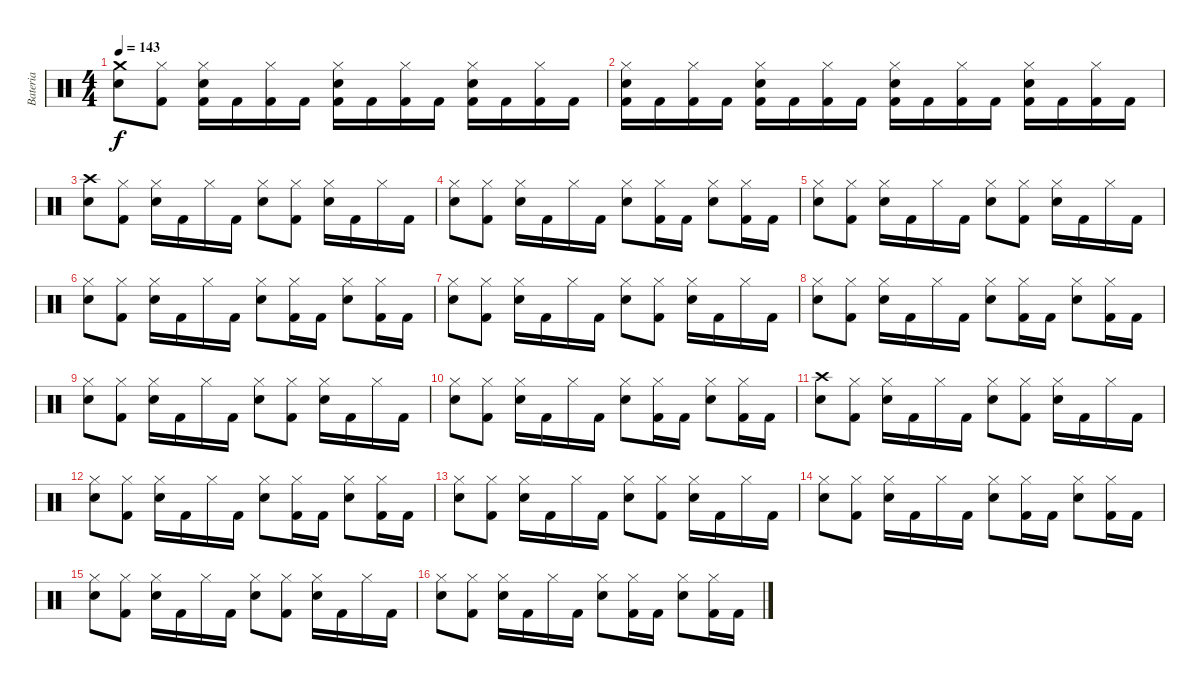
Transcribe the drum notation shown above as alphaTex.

\track ("Bateria" "Bateria") {instrument percussion}
\staff {score}
\articulation defaults
\ts (4 4)
\tempo 143
\clef neutral
\ks c
("Crash medium (hit)" "Snare (hit) 2").8{dy f} ("Hi-Hat (closed)" "Kick (hit) 2").8 ("Hi-Hat (closed)" "Snare (hit) 2" "Kick (hit) 2").16 "Kick (hit) 2".16 ("Hi-Hat (closed)" "Kick (hit) 2").16 "Kick (hit) 2".16 ("Hi-Hat (closed)" "Snare (hit) 2" "Kick (hit) 2").16 "Kick (hit) 2".16 ("Hi-Hat (closed)" "Kick (hit) 2").16 "Kick (hit) 2".16 ("Hi-Hat (closed)" "Snare (hit) 2" "Kick (hit) 2").16 "Kick (hit) 2".16 ("Hi-Hat (closed)" "Kick (hit) 2").16 "Kick (hit) 2".16 |
("Hi-Hat (closed)" "Snare (hit) 2" "Kick (hit) 2").16 "Kick (hit) 2".16 ("Hi-Hat (closed)" "Kick (hit) 2").16 "Kick (hit) 2".16 ("Hi-Hat (closed)" "Snare (hit) 2" "Kick (hit) 2").16 "Kick (hit) 2".16 ("Hi-Hat (closed)" "Kick (hit) 2").16 "Kick (hit) 2".16 ("Hi-Hat (closed)" "Snare (hit) 2" "Kick (hit) 2").16 "Kick (hit) 2".16 ("Hi-Hat (closed)" "Kick (hit) 2").16 "Kick (hit) 2".16 ("Hi-Hat (closed)" "Snare (hit) 2" "Kick (hit) 2").16 "Kick (hit) 2".16 ("Hi-Hat (closed)" "Kick (hit) 2").16 "Kick (hit) 2".16 |
("Crash high (hit)" "Snare (hit) 2").8 ("Hi-Hat (closed)" "Kick (hit) 2").8 ("Hi-Hat (closed)" "Snare (hit) 2").16 "Kick (hit) 2".16 "Hi-Hat (closed)".16 "Kick (hit) 2".16 ("Hi-Hat (closed)" "Snare (hit) 2").8 ("Hi-Hat (closed)" "Kick (hit) 2").8 ("Hi-Hat (closed)" "Snare (hit) 2").16 "Kick (hit) 2".16 "Hi-Hat (closed)".16 "Kick (hit) 2".16 |
("Hi-Hat (closed)" "Snare (hit) 2").8 ("Hi-Hat (closed)" "Kick (hit) 2").8 ("Hi-Hat (closed)" "Snare (hit) 2").16 "Kick (hit) 2".16 "Hi-Hat (closed)".16 "Kick (hit) 2".16 ("Hi-Hat (closed)" "Snare (hit) 2").8 ("Hi-Hat (closed)" "Kick (hit) 2").16 "Kick (hit) 2".16 ("Hi-Hat (closed)" "Snare (hit) 2").8 ("Hi-Hat (closed)" "Kick (hit) 2").16 "Kick (hit) 2".16 |
("Hi-Hat (closed)" "Snare (hit) 2").8 ("Hi-Hat (closed)" "Kick (hit) 2").8 ("Hi-Hat (closed)" "Snare (hit) 2").16 "Kick (hit) 2".16 "Hi-Hat (closed)".16 "Kick (hit) 2".16 ("Hi-Hat (closed)" "Snare (hit) 2").8 ("Hi-Hat (closed)" "Kick (hit) 2").8 ("Hi-Hat (closed)" "Snare (hit) 2").16 "Kick (hit) 2".16 "Hi-Hat (closed)".16 "Kick (hit) 2".16 |
("Hi-Hat (closed)" "Snare (hit) 2").8 ("Hi-Hat (closed)" "Kick (hit) 2").8 ("Hi-Hat (closed)" "Snare (hit) 2").16 "Kick (hit) 2".16 "Hi-Hat (closed)".16 "Kick (hit) 2".16 ("Hi-Hat (closed)" "Snare (hit) 2").8 ("Hi-Hat (closed)" "Kick (hit) 2").16 "Kick (hit) 2".16 ("Hi-Hat (closed)" "Snare (hit) 2").8 ("Hi-Hat (closed)" "Kick (hit) 2").16 "Kick (hit) 2".16 |
("Hi-Hat (closed)" "Snare (hit) 2").8 ("Hi-Hat (closed)" "Kick (hit) 2").8 ("Hi-Hat (closed)" "Snare (hit) 2").16 "Kick (hit) 2".16 "Hi-Hat (closed)".16 "Kick (hit) 2".16 ("Hi-Hat (closed)" "Snare (hit) 2").8 ("Hi-Hat (closed)" "Kick (hit) 2").8 ("Hi-Hat (closed)" "Snare (hit) 2").16 "Kick (hit) 2".16 "Hi-Hat (closed)".16 "Kick (hit) 2".16 |
("Hi-Hat (closed)" "Snare (hit) 2").8 ("Hi-Hat (closed)" "Kick (hit) 2").8 ("Hi-Hat (closed)" "Snare (hit) 2").16 "Kick (hit) 2".16 "Hi-Hat (closed)".16 "Kick (hit) 2".16 ("Hi-Hat (closed)" "Snare (hit) 2").8 ("Hi-Hat (closed)" "Kick (hit) 2").16 "Kick (hit) 2".16 ("Hi-Hat (closed)" "Snare (hit) 2").8 ("Hi-Hat (closed)" "Kick (hit) 2").16 "Kick (hit) 2".16 |
("Hi-Hat (closed)" "Snare (hit) 2").8 ("Hi-Hat (closed)" "Kick (hit) 2").8 ("Hi-Hat (closed)" "Snare (hit) 2").16 "Kick (hit) 2".16 "Hi-Hat (closed)".16 "Kick (hit) 2".16 ("Hi-Hat (closed)" "Snare (hit) 2").8 ("Hi-Hat (closed)" "Kick (hit) 2").8 ("Hi-Hat (closed)" "Snare (hit) 2").16 "Kick (hit) 2".16 "Hi-Hat (closed)".16 "Kick (hit) 2".16 |
("Hi-Hat (closed)" "Snare (hit) 2").8 ("Hi-Hat (closed)" "Kick (hit) 2").8 ("Hi-Hat (closed)" "Snare (hit) 2").16 "Kick (hit) 2".16 "Hi-Hat (closed)".16 "Kick (hit) 2".16 ("Hi-Hat (closed)" "Snare (hit) 2").8 ("Hi-Hat (closed)" "Kick (hit) 2").16 "Kick (hit) 2".16 ("Hi-Hat (closed)" "Snare (hit) 2").8 ("Hi-Hat (closed)" "Kick (hit) 2").16 "Kick (hit) 2".16 |
("Crash high (hit)" "Snare (hit) 2").8 ("Hi-Hat (closed)" "Kick (hit) 2").8 ("Hi-Hat (closed)" "Snare (hit) 2").16 "Kick (hit) 2".16 "Hi-Hat (closed)".16 "Kick (hit) 2".16 ("Hi-Hat (closed)" "Snare (hit) 2").8 ("Hi-Hat (closed)" "Kick (hit) 2").8 ("Hi-Hat (closed)" "Snare (hit) 2").16 "Kick (hit) 2".16 "Hi-Hat (closed)".16 "Kick (hit) 2".16 |
("Hi-Hat (closed)" "Snare (hit) 2").8 ("Hi-Hat (closed)" "Kick (hit) 2").8 ("Hi-Hat (closed)" "Snare (hit) 2").16 "Kick (hit) 2".16 "Hi-Hat (closed)".16 "Kick (hit) 2".16 ("Hi-Hat (closed)" "Snare (hit) 2").8 ("Hi-Hat (closed)" "Kick (hit) 2").16 "Kick (hit) 2".16 ("Hi-Hat (closed)" "Snare (hit) 2").8 ("Hi-Hat (closed)" "Kick (hit) 2").16 "Kick (hit) 2".16 |
("Hi-Hat (closed)" "Snare (hit) 2").8 ("Hi-Hat (closed)" "Kick (hit) 2").8 ("Hi-Hat (closed)" "Snare (hit) 2").16 "Kick (hit) 2".16 "Hi-Hat (closed)".16 "Kick (hit) 2".16 ("Hi-Hat (closed)" "Snare (hit) 2").8 ("Hi-Hat (closed)" "Kick (hit) 2").8 ("Hi-Hat (closed)" "Snare (hit) 2").16 "Kick (hit) 2".16 "Hi-Hat (closed)".16 "Kick (hit) 2".16 |
("Hi-Hat (closed)" "Snare (hit) 2").8 ("Hi-Hat (closed)" "Kick (hit) 2").8 ("Hi-Hat (closed)" "Snare (hit) 2").16 "Kick (hit) 2".16 "Hi-Hat (closed)".16 "Kick (hit) 2".16 ("Hi-Hat (closed)" "Snare (hit) 2").8 ("Hi-Hat (closed)" "Kick (hit) 2").16 "Kick (hit) 2".16 ("Hi-Hat (closed)" "Snare (hit) 2").8 ("Hi-Hat (closed)" "Kick (hit) 2").16 "Kick (hit) 2".16 |
("Hi-Hat (closed)" "Snare (hit) 2").8 ("Hi-Hat (closed)" "Kick (hit) 2").8 ("Hi-Hat (closed)" "Snare (hit) 2").16 "Kick (hit) 2".16 "Hi-Hat (closed)".16 "Kick (hit) 2".16 ("Hi-Hat (closed)" "Snare (hit) 2").8 ("Hi-Hat (closed)" "Kick (hit) 2").8 ("Hi-Hat (closed)" "Snare (hit) 2").16 "Kick (hit) 2".16 "Hi-Hat (closed)".16 "Kick (hit) 2".16 |
("Hi-Hat (closed)" "Snare (hit) 2").8 ("Hi-Hat (closed)" "Kick (hit) 2").8 ("Hi-Hat (closed)" "Snare (hit) 2").16 "Kick (hit) 2".16 "Hi-Hat (closed)".16 "Kick (hit) 2".16 ("Hi-Hat (closed)" "Snare (hit) 2").8 ("Hi-Hat (closed)" "Kick (hit) 2").16 "Kick (hit) 2".16 ("Hi-Hat (closed)" "Snare (hit) 2").8 ("Hi-Hat (closed)" "Kick (hit) 2").16 "Kick (hit) 2".16
